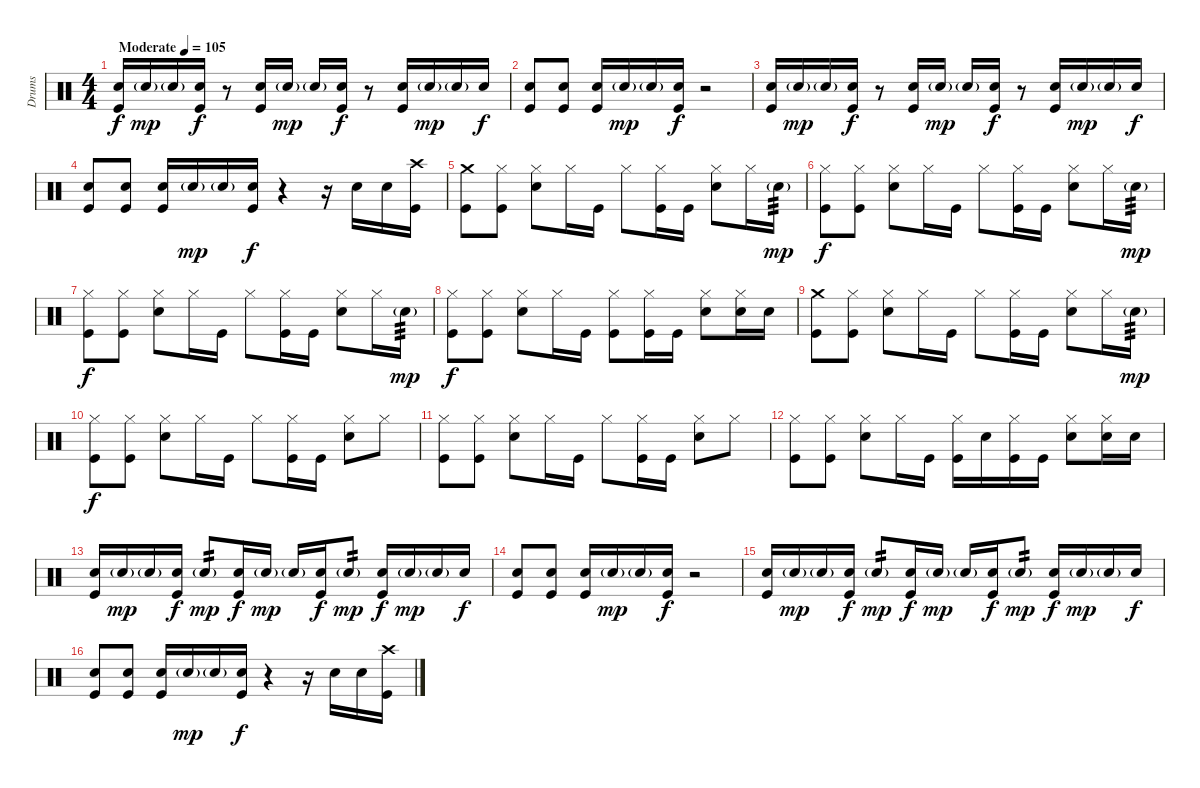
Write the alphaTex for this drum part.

\track ("Drums" "Drums") {instrument percussion}
\staff {score}
\articulation defaults
\ts (4 4)
\tempo (105 "Moderate")
\clef neutral
\ks c
("Electric Snare (hit)" "Kick (hit)").16{dy f} "Electric Snare (hit)"{g}.16{dy mp} "Electric Snare (hit)"{g}.16 ("Electric Snare (hit)" "Kick (hit)").16{dy f} r.8 ("Electric Snare (hit)" "Kick (hit)").16 "Electric Snare (hit)"{g}.16{dy mp} "Electric Snare (hit)"{g}.16 ("Electric Snare (hit)" "Kick (hit)").16{dy f} r.8 ("Electric Snare (hit)" "Kick (hit)").16 "Electric Snare (hit)"{g}.16{dy mp} "Electric Snare (hit)"{g}.16 "Electric Snare (hit)".16{dy f} |
("Electric Snare (hit)" "Kick (hit)").8 ("Electric Snare (hit)" "Kick (hit)").8 ("Electric Snare (hit)" "Kick (hit)").16 "Electric Snare (hit)"{g}.16{dy mp} "Electric Snare (hit)"{g}.16 ("Electric Snare (hit)" "Kick (hit)").16{dy f} r.2 |
("Electric Snare (hit)" "Kick (hit)").16 "Electric Snare (hit)"{g}.16{dy mp} "Electric Snare (hit)"{g}.16 ("Electric Snare (hit)" "Kick (hit)").16{dy f} r.8 ("Electric Snare (hit)" "Kick (hit)").16 "Electric Snare (hit)"{g}.16{dy mp} "Electric Snare (hit)"{g}.16 ("Electric Snare (hit)" "Kick (hit)").16{dy f} r.8 ("Electric Snare (hit)" "Kick (hit)").16 "Electric Snare (hit)"{g}.16{dy mp} "Electric Snare (hit)"{g}.16 "Electric Snare (hit)".16{dy f} |
("Electric Snare (hit)" "Kick (hit)").8 ("Electric Snare (hit)" "Kick (hit)").8 ("Electric Snare (hit)" "Kick (hit)").16 "Electric Snare (hit)"{g}.16{dy mp} "Electric Snare (hit)"{g}.16 ("Electric Snare (hit)" "Kick (hit)").16{dy f} r.4 r.16 "Electric Snare (hit)".16 "Electric Snare (hit)".16 ("Crash high (hit)" "Kick (hit)").16 |
("Crash medium (hit)" "Kick (hit)").8 ("Hi-Hat (closed)" "Kick (hit)").8 ("Hi-Hat (closed)" "Electric Snare (hit)").8 "Hi-Hat (closed)".16 "Kick (hit)".16 "Hi-Hat (closed)".8 ("Hi-Hat (closed)" "Kick (hit)").16 "Kick (hit)".16 ("Hi-Hat (closed)" "Electric Snare (hit)").8 "Hi-Hat (closed)".16 "Electric Snare (hit)"{g}.16{tp 3 dy mp} |
("Hi-Hat (closed)" "Kick (hit)").8{dy f} ("Hi-Hat (closed)" "Kick (hit)").8 ("Hi-Hat (closed)" "Electric Snare (hit)").8 "Hi-Hat (closed)".16 "Kick (hit)".16 "Hi-Hat (closed)".8 ("Hi-Hat (closed)" "Kick (hit)").16 "Kick (hit)".16 ("Hi-Hat (closed)" "Electric Snare (hit)").8 "Hi-Hat (closed)".16 "Electric Snare (hit)"{g}.16{tp 3 dy mp} |
("Hi-Hat (closed)" "Kick (hit)").8{dy f} ("Hi-Hat (closed)" "Kick (hit)").8 ("Hi-Hat (closed)" "Electric Snare (hit)").8 "Hi-Hat (closed)".16 "Kick (hit)".16 "Hi-Hat (closed)".8 ("Hi-Hat (closed)" "Kick (hit)").16 "Kick (hit)".16 ("Hi-Hat (closed)" "Electric Snare (hit)").8 "Hi-Hat (closed)".16 "Electric Snare (hit)"{g}.16{tp 3 dy mp} |
("Hi-Hat (closed)" "Kick (hit)").8{dy f} ("Hi-Hat (closed)" "Kick (hit)").8 ("Hi-Hat (closed)" "Electric Snare (hit)").8 "Hi-Hat (closed)".16 "Kick (hit)".16 ("Hi-Hat (closed)" "Kick (hit)").8 ("Hi-Hat (closed)" "Kick (hit)").16 "Kick (hit)".16 ("Hi-Hat (closed)" "Electric Snare (hit)").8 ("Hi-Hat (closed)" "Electric Snare (hit)").16 "Electric Snare (hit)".16 |
("Crash medium (hit)" "Kick (hit)").8 ("Hi-Hat (closed)" "Kick (hit)").8 ("Hi-Hat (closed)" "Electric Snare (hit)").8 "Hi-Hat (closed)".16 "Kick (hit)".16 "Hi-Hat (closed)".8 ("Hi-Hat (closed)" "Kick (hit)").16 "Kick (hit)".16 ("Hi-Hat (closed)" "Electric Snare (hit)").8 "Hi-Hat (closed)".16 "Electric Snare (hit)"{g}.16{tp 3 dy mp} |
("Hi-Hat (closed)" "Kick (hit)").8{dy f} ("Hi-Hat (closed)" "Kick (hit)").8 ("Hi-Hat (closed)" "Electric Snare (hit)").8 "Hi-Hat (closed)".16 "Kick (hit)".16 "Hi-Hat (closed)".8 ("Hi-Hat (closed)" "Kick (hit)").16 "Kick (hit)".16 ("Hi-Hat (closed)" "Electric Snare (hit)").8 "Hi-Hat (closed)".8 |
("Hi-Hat (closed)" "Kick (hit)").8 ("Hi-Hat (closed)" "Kick (hit)").8 ("Hi-Hat (closed)" "Electric Snare (hit)").8 "Hi-Hat (closed)".16 "Kick (hit)".16 "Hi-Hat (closed)".8 ("Hi-Hat (closed)" "Kick (hit)").16 "Kick (hit)".16 ("Hi-Hat (closed)" "Electric Snare (hit)").8 "Hi-Hat (closed)".8 |
("Hi-Hat (closed)" "Kick (hit)").8 ("Hi-Hat (closed)" "Kick (hit)").8 ("Hi-Hat (closed)" "Electric Snare (hit)").8 "Hi-Hat (closed)".16 "Kick (hit)".16 ("Hi-Hat (closed)" "Kick (hit)").16 "Electric Snare (hit)".16 ("Hi-Hat (closed)" "Kick (hit)").16 "Kick (hit)".16 ("Hi-Hat (closed)" "Electric Snare (hit)").8 ("Hi-Hat (closed)" "Electric Snare (hit)").16 "Electric Snare (hit)".16 |
("Electric Snare (hit)" "Kick (hit)").16 "Electric Snare (hit)"{g}.16{dy mp} "Electric Snare (hit)"{g}.16 ("Electric Snare (hit)" "Kick (hit)").16{dy f} "Electric Snare (hit)"{g}.8{tp 2 dy mp} ("Electric Snare (hit)" "Kick (hit)").16{dy f} "Electric Snare (hit)"{g}.16{dy mp} "Electric Snare (hit)"{g}.16 ("Electric Snare (hit)" "Kick (hit)").16{dy f} "Electric Snare (hit)"{g}.8{tp 2 dy mp} ("Electric Snare (hit)" "Kick (hit)").16{dy f} "Electric Snare (hit)"{g}.16{dy mp} "Electric Snare (hit)"{g}.16 "Electric Snare (hit)".16{dy f} |
("Electric Snare (hit)" "Kick (hit)").8 ("Electric Snare (hit)" "Kick (hit)").8 ("Electric Snare (hit)" "Kick (hit)").16 "Electric Snare (hit)"{g}.16{dy mp} "Electric Snare (hit)"{g}.16 ("Electric Snare (hit)" "Kick (hit)").16{dy f} r.2 |
("Electric Snare (hit)" "Kick (hit)").16 "Electric Snare (hit)"{g}.16{dy mp} "Electric Snare (hit)"{g}.16 ("Electric Snare (hit)" "Kick (hit)").16{dy f} "Electric Snare (hit)"{g}.8{tp 2 dy mp} ("Electric Snare (hit)" "Kick (hit)").16{dy f} "Electric Snare (hit)"{g}.16{dy mp} "Electric Snare (hit)"{g}.16 ("Electric Snare (hit)" "Kick (hit)").16{dy f} "Electric Snare (hit)"{g}.8{tp 2 dy mp} ("Electric Snare (hit)" "Kick (hit)").16{dy f} "Electric Snare (hit)"{g}.16{dy mp} "Electric Snare (hit)"{g}.16 "Electric Snare (hit)".16{dy f} |
("Electric Snare (hit)" "Kick (hit)").8 ("Electric Snare (hit)" "Kick (hit)").8 ("Electric Snare (hit)" "Kick (hit)").16 "Electric Snare (hit)"{g}.16{dy mp} "Electric Snare (hit)"{g}.16 ("Electric Snare (hit)" "Kick (hit)").16{dy f} r.4 r.16 "Electric Snare (hit)".16 "Electric Snare (hit)".16 ("Crash high (hit)" "Kick (hit)").16
